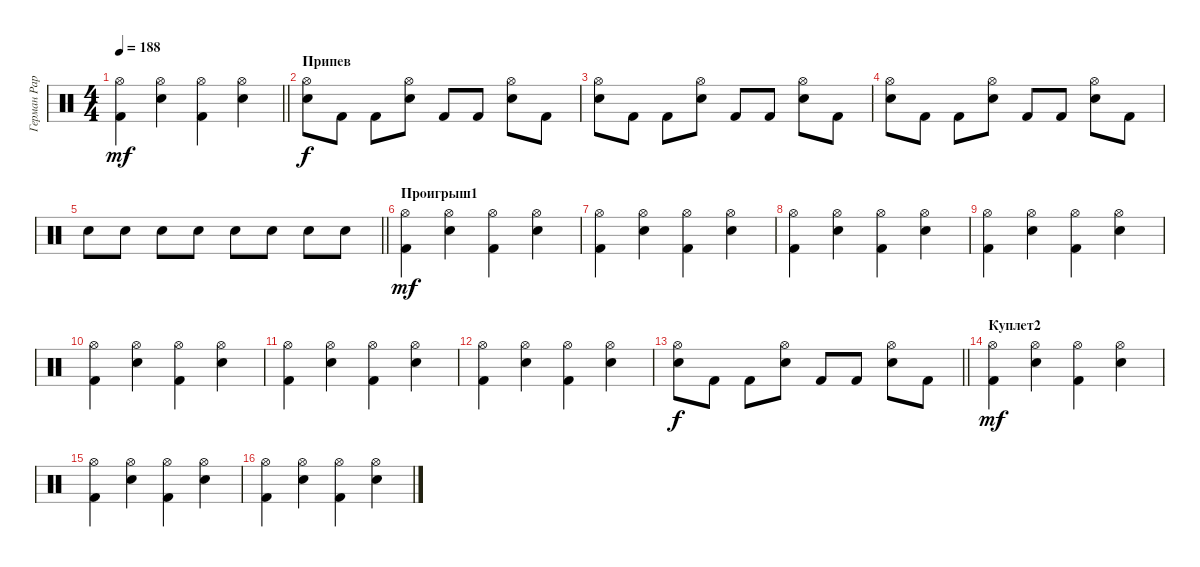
\track ("Герман Раребелл, ударные" "Герман Рар") {instrument percussion}
\staff {score}
\articulation defaults
\ts (4 4)
\tempo 188
\clef neutral
\barLineRight lightlight
\ks c
("Hi-Hat (open)" "Kick (hit) 2").4{dy mf} ("Hi-Hat (open)" "Snare (hit) 2").4 ("Hi-Hat (open)" "Kick (hit) 2").4 ("Hi-Hat (open)" "Snare (hit) 2").4 |
\section ("" "Припев")
("Snare (hit) 2" "Hi-Hat (open)").8{dy f} "Kick (hit) 2".8 "Kick (hit) 2".8 ("Snare (hit) 2" "Hi-Hat (open)").8 "Kick (hit) 2".8 "Kick (hit) 2".8 ("Snare (hit) 2" "Hi-Hat (open)").8 "Kick (hit) 2".8 |
("Snare (hit) 2" "Hi-Hat (open)").8 "Kick (hit) 2".8 "Kick (hit) 2".8 ("Snare (hit) 2" "Hi-Hat (open)").8 "Kick (hit) 2".8 "Kick (hit) 2".8 ("Snare (hit) 2" "Hi-Hat (open)").8 "Kick (hit) 2".8 |
("Snare (hit) 2" "Hi-Hat (open)").8 "Kick (hit) 2".8 "Kick (hit) 2".8 ("Snare (hit) 2" "Hi-Hat (open)").8 "Kick (hit) 2".8 "Kick (hit) 2".8 ("Snare (hit) 2" "Hi-Hat (open)").8 "Kick (hit) 2".8 |
\barLineRight lightlight "Snare (hit) 2".8 "Snare (hit) 2".8 "Snare (hit) 2".8 "Snare (hit) 2".8 "Snare (hit) 2".8 "Snare (hit) 2".8 "Snare (hit) 2".8 "Snare (hit) 2".8
|
\section ("" "Проигрыш1")
("Hi-Hat (open)" "Kick (hit) 2").4{dy mf} ("Hi-Hat (open)" "Snare (hit) 2").4 ("Hi-Hat (open)" "Kick (hit) 2").4 ("Hi-Hat (open)" "Snare (hit) 2").4 |
("Hi-Hat (open)" "Kick (hit) 2").4 ("Hi-Hat (open)" "Snare (hit) 2").4 ("Hi-Hat (open)" "Kick (hit) 2").4 ("Hi-Hat (open)" "Snare (hit) 2").4 |
("Hi-Hat (open)" "Kick (hit) 2").4 ("Hi-Hat (open)" "Snare (hit) 2").4 ("Hi-Hat (open)" "Kick (hit) 2").4 ("Hi-Hat (open)" "Snare (hit) 2").4 |
("Hi-Hat (open)" "Kick (hit) 2").4 ("Hi-Hat (open)" "Snare (hit) 2").4 ("Hi-Hat (open)" "Kick (hit) 2").4 ("Hi-Hat (open)" "Snare (hit) 2").4 |
("Hi-Hat (open)" "Kick (hit) 2").4 ("Hi-Hat (open)" "Snare (hit) 2").4 ("Hi-Hat (open)" "Kick (hit) 2").4 ("Hi-Hat (open)" "Snare (hit) 2").4 |
("Hi-Hat (open)" "Kick (hit) 2").4 ("Hi-Hat (open)" "Snare (hit) 2").4 ("Hi-Hat (open)" "Kick (hit) 2").4 ("Hi-Hat (open)" "Snare (hit) 2").4 |
("Hi-Hat (open)" "Kick (hit) 2").4 ("Hi-Hat (open)" "Snare (hit) 2").4 ("Hi-Hat (open)" "Kick (hit) 2").4 ("Hi-Hat (open)" "Snare (hit) 2").4 |
\barLineRight lightlight
("Snare (hit) 2" "Hi-Hat (open)").8{dy f} "Kick (hit) 2".8 "Kick (hit) 2".8 ("Snare (hit) 2" "Hi-Hat (open)").8 "Kick (hit) 2".8 "Kick (hit) 2".8 ("Snare (hit) 2" "Hi-Hat (open)").8 "Kick (hit) 2".8 |
\section ("" "Куплет2")
("Hi-Hat (open)" "Kick (hit) 2").4{dy mf} ("Hi-Hat (open)" "Snare (hit) 2").4 ("Hi-Hat (open)" "Kick (hit) 2").4 ("Hi-Hat (open)" "Snare (hit) 2").4 |
("Hi-Hat (open)" "Kick (hit) 2").4 ("Hi-Hat (open)" "Snare (hit) 2").4 ("Hi-Hat (open)" "Kick (hit) 2").4 ("Hi-Hat (open)" "Snare (hit) 2").4 |
("Hi-Hat (open)" "Kick (hit) 2").4 ("Hi-Hat (open)" "Snare (hit) 2").4 ("Hi-Hat (open)" "Kick (hit) 2").4 ("Hi-Hat (open)" "Snare (hit) 2").4
